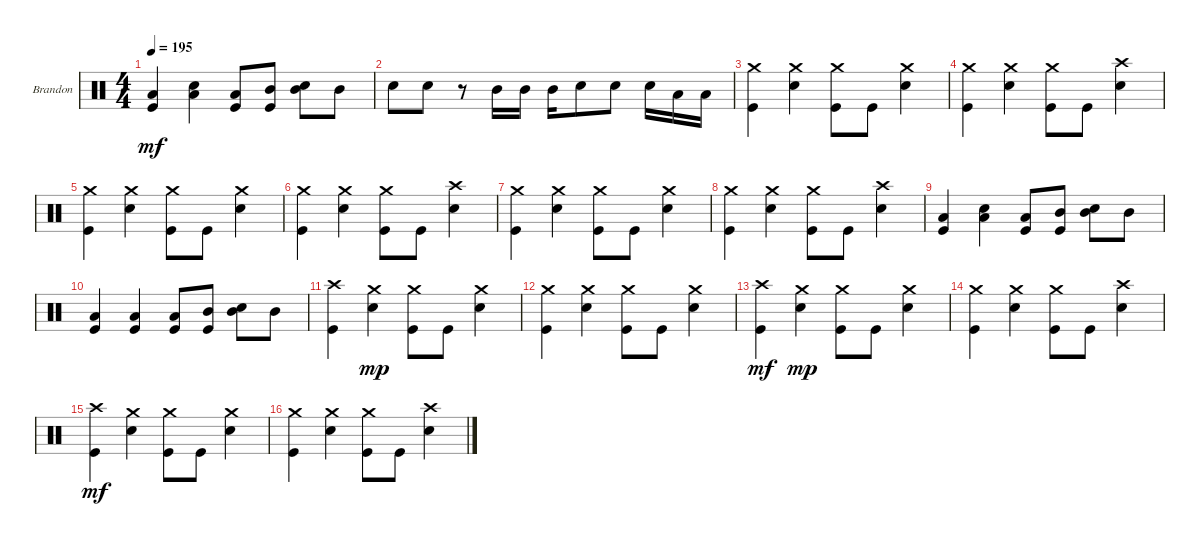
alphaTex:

\defaultSystemsLayout 4
\bracketExtendMode groupsimilarinstruments
\firstSystemTrackNameOrientation horizontal
\otherSystemsTrackNameOrientation horizontal
\track ("Drumkit" "Brandon") {instrument percussion}
\staff {score}
\articulation defaults
\ts (4 4)
\tempo 195
\clef neutral
\scale
0.333333
\ks c
("Kick (hit)" "Low Tom (hit)").4{dy mf} ("Low Tom (hit)" "Snare (hit) 2").4 ("Kick (hit)" "Low Tom (hit)").8 ("Kick (hit)" "Mid Tom (hit)").8 ("Snare (hit) 2" "Mid Tom (hit)").8 "Mid Tom (hit)".8 |
\scale
0.333333 "Snare (hit) 2".8 "Snare (hit) 2".8 r.8 "Mid Tom (hit)".16 "Mid Tom (hit)".16 "Mid Tom (hit)".16 "Snare (hit) 2".8 "Snare (hit) 2".8 "Snare (hit) 2".16 "Low Tom (hit)".16 "Low Tom (hit)".16 |
\scale
0.333333 ("Kick (hit)" "Crash medium (hit)").4 ("Snare (hit) 2" "Crash medium (hit)").4 ("Kick (hit)" "Crash medium (hit)").8 "Kick (hit)".8 ("Snare (hit) 2" "Crash medium (hit)").4 |
\scale
0.333333 ("Kick (hit)" "Crash medium (hit)").4 ("Snare (hit) 2" "Crash medium (hit)").4 ("Kick (hit)" "Crash medium (hit)").8 "Kick (hit)".8 ("Snare (hit) 2" "Crash high (hit)").4 |
\scale
0.333333 ("Kick (hit)" "Crash medium (hit)").4 ("Snare (hit) 2" "Crash medium (hit)").4 ("Kick (hit)" "Crash medium (hit)").8 "Kick (hit)".8 ("Snare (hit) 2" "Crash medium (hit)").4 |
\scale
0.333333 ("Kick (hit)" "Crash medium (hit)").4 ("Snare (hit) 2" "Crash medium (hit)").4 ("Kick (hit)" "Crash medium (hit)").8 "Kick (hit)".8 ("Snare (hit) 2" "Crash high (hit)").4 |
\scale
0.333333 ("Kick (hit)" "Crash medium (hit)").4 ("Snare (hit) 2" "Crash medium (hit)").4 ("Kick (hit)" "Crash medium (hit)").8 "Kick (hit)".8 ("Snare (hit) 2" "Crash medium (hit)").4 |
\scale
0.333333 ("Kick (hit)" "Crash medium (hit)").4 ("Snare (hit) 2" "Crash medium (hit)").4 ("Kick (hit)" "Crash medium (hit)").8 "Kick (hit)".8 ("Snare (hit) 2" "Crash high (hit)").4 |
\scale
0.333333 ("Kick (hit)" "Low Tom (hit)").4 ("Low Tom (hit)" "Snare (hit) 2").4 ("Kick (hit)" "Low Tom (hit)").8 ("Kick (hit)" "Mid Tom (hit)").8 ("Snare (hit) 2" "Mid Tom (hit)").8 "Mid Tom (hit)".8 |
\scale
0.333333 ("Kick (hit)" "Low Tom (hit)").4 ("Kick (hit)" "Low Tom (hit)").4 ("Kick (hit)" "Low Tom (hit)").8 ("Kick (hit)" "Mid Tom (hit)").8 ("Snare (hit) 2" "Mid Tom (hit)").8 "Mid Tom (hit)".8 |
\scale
0.333333 ("Kick (hit)" "Crash high (hit)").4 ("Snare (hit) 2" "Crash medium (hit)").4{dy mp} ("Kick (hit)" "Crash medium (hit)").8 "Kick (hit)".8 ("Snare (hit) 2" "Crash medium (hit)").4 |
\scale
0.333333 ("Kick (hit)" "Crash medium (hit)").4 ("Snare (hit) 2" "Crash medium (hit)").4 ("Kick (hit)" "Crash medium (hit)").8 "Kick (hit)".8 ("Snare (hit) 2" "Crash medium (hit)").4 |
\scale
0.333333 ("Kick (hit)" "Crash high (hit)").4{dy mf} ("Snare (hit) 2" "Crash medium (hit)").4{dy mp} ("Kick (hit)" "Crash medium (hit)").8 "Kick (hit)".8 ("Snare (hit) 2" "Crash medium (hit)").4 |
\scale
0.333333 ("Kick (hit)" "Crash medium (hit)").4 ("Snare (hit) 2" "Crash medium (hit)").4 ("Kick (hit)" "Crash medium (hit)").8 "Kick (hit)".8 ("Snare (hit) 2" "Crash high (hit)").4 |
\scale
0.333333 ("Kick (hit)" "Crash high (hit)").4{dy mf} ("Snare (hit) 2" "Crash medium (hit)").4 ("Kick (hit)" "Crash medium (hit)").8 "Kick (hit)".8 ("Snare (hit) 2" "Crash medium (hit)").4 |
\scale
0.333333 ("Kick (hit)" "Crash medium (hit)").4 ("Snare (hit) 2" "Crash medium (hit)").4 ("Kick (hit)" "Crash medium (hit)").8 "Kick (hit)".8 ("Snare (hit) 2" "Crash high (hit)").4
